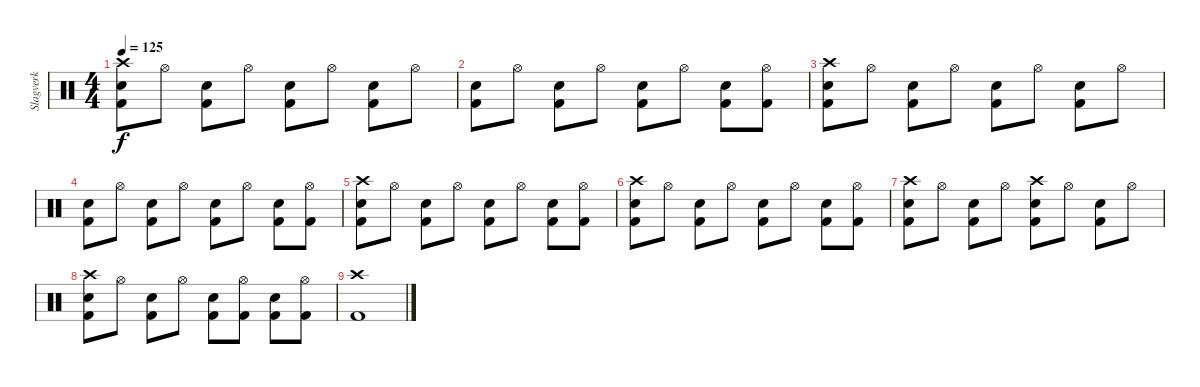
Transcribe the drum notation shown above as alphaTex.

\track ("Slagverk" "Slagverk") {instrument percussion}
\staff {score}
\articulation defaults
\ts (4 4)
\tempo 125
\clef neutral
\ks c
("Crash high (hit)" "Kick (hit) 2" "Electric Snare (hit)").8{dy f} "Hi-Hat (open)".8 ("Kick (hit) 2" "Electric Snare (hit)").8 "Hi-Hat (open)".8 ("Kick (hit) 2" "Electric Snare (hit)").8 "Hi-Hat (open)".8 ("Kick (hit) 2" "Electric Snare (hit)").8 "Hi-Hat (open)".8 |
("Kick (hit) 2" "Electric Snare (hit)").8 "Hi-Hat (open)".8 ("Kick (hit) 2" "Electric Snare (hit)").8 "Hi-Hat (open)".8 ("Kick (hit) 2" "Electric Snare (hit)").8 "Hi-Hat (open)".8 ("Kick (hit) 2" "Electric Snare (hit)").8 ("Kick (hit) 2" "Hi-Hat (open)").8 |
("Crash high (hit)" "Kick (hit) 2" "Electric Snare (hit)").8 "Hi-Hat (open)".8 ("Kick (hit) 2" "Electric Snare (hit)").8 "Hi-Hat (open)".8 ("Kick (hit) 2" "Electric Snare (hit)").8 "Hi-Hat (open)".8 ("Kick (hit) 2" "Electric Snare (hit)").8 "Hi-Hat (open)".8 |
("Kick (hit) 2" "Electric Snare (hit)").8 "Hi-Hat (open)".8 ("Kick (hit) 2" "Electric Snare (hit)").8 "Hi-Hat (open)".8 ("Kick (hit) 2" "Electric Snare (hit)").8 "Hi-Hat (open)".8 ("Kick (hit) 2" "Electric Snare (hit)").8 ("Kick (hit) 2" "Hi-Hat (open)").8 |
("Crash high (hit)" "Kick (hit) 2" "Electric Snare (hit)").8 "Hi-Hat (open)".8 ("Kick (hit) 2" "Electric Snare (hit)").8 "Hi-Hat (open)".8 ("Kick (hit) 2" "Electric Snare (hit)").8 "Hi-Hat (open)".8 ("Kick (hit) 2" "Electric Snare (hit)").8 ("Kick (hit) 2" "Hi-Hat (open)").8 |
("Crash high (hit)" "Kick (hit) 2" "Electric Snare (hit)").8 "Hi-Hat (open)".8 ("Kick (hit) 2" "Electric Snare (hit)").8 "Hi-Hat (open)".8 ("Kick (hit) 2" "Electric Snare (hit)").8 "Hi-Hat (open)".8 ("Kick (hit) 2" "Electric Snare (hit)").8 ("Kick (hit) 2" "Hi-Hat (open)").8 |
("Crash high (hit)" "Kick (hit) 2" "Electric Snare (hit)").8 "Hi-Hat (open)".8 ("Kick (hit) 2" "Electric Snare (hit)").8 "Hi-Hat (open)".8 ("Crash high (hit)" "Kick (hit) 2" "Electric Snare (hit)").8 "Hi-Hat (open)".8 ("Kick (hit) 2" "Electric Snare (hit)").8 "Hi-Hat (open)".8 |
("Crash high (hit)" "Kick (hit) 2" "Electric Snare (hit)").8 "Hi-Hat (open)".8 ("Kick (hit) 2" "Electric Snare (hit)").8 "Hi-Hat (open)".8 ("Kick (hit) 2" "Electric Snare (hit)").8 ("Kick (hit) 2" "Hi-Hat (open)").8 ("Kick (hit) 2" "Electric Snare (hit)").8 ("Kick (hit) 2" "Hi-Hat (open)").8 |
("Crash high (hit)" "Kick (hit) 2").1
